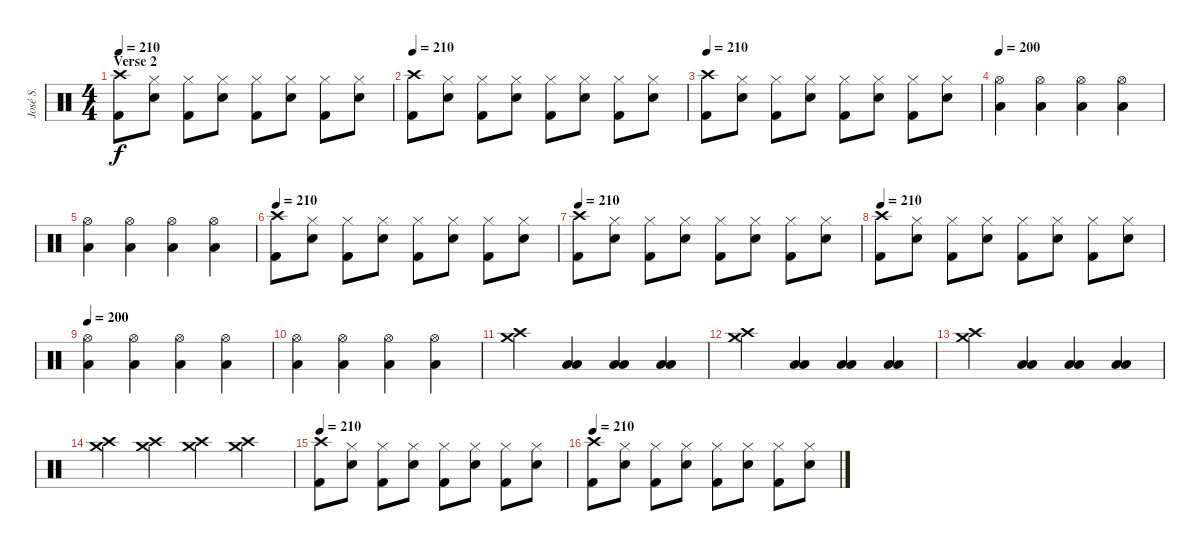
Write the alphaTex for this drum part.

\track ("José S." "José S.") {instrument percussion}
\staff {score}
\articulation defaults
\ts (4 4)
\section ("" "Verse 2")
\tempo 210
\clef neutral
\ks c
("Crash high (hit)" "Kick (hit) 2").8{dy f} ("Hi-Hat (closed)" "Electric Snare (hit)").8 ("Hi-Hat (closed)" "Kick (hit) 2").8 ("Hi-Hat (closed)" "Electric Snare (hit)").8 ("Hi-Hat (closed)" "Kick (hit) 2").8 ("Hi-Hat (closed)" "Electric Snare (hit)").8 ("Hi-Hat (closed)" "Kick (hit) 2").8 ("Hi-Hat (closed)" "Electric Snare (hit)").8 |
\tempo 210
("Crash high (hit)" "Kick (hit) 2").8 ("Hi-Hat (closed)" "Electric Snare (hit)").8 ("Hi-Hat (closed)" "Kick (hit) 2").8 ("Hi-Hat (closed)" "Electric Snare (hit)").8 ("Hi-Hat (closed)" "Kick (hit) 2").8 ("Hi-Hat (closed)" "Electric Snare (hit)").8 ("Hi-Hat (closed)" "Kick (hit) 2").8 ("Hi-Hat (closed)" "Electric Snare (hit)").8 |
\tempo 210
("Crash high (hit)" "Kick (hit) 2").8 ("Hi-Hat (closed)" "Electric Snare (hit)").8 ("Hi-Hat (closed)" "Kick (hit) 2").8 ("Hi-Hat (closed)" "Electric Snare (hit)").8 ("Hi-Hat (closed)" "Kick (hit) 2").8 ("Hi-Hat (closed)" "Electric Snare (hit)").8 ("Hi-Hat (closed)" "Kick (hit) 2").8 ("Hi-Hat (closed)" "Electric Snare (hit)").8 |
\tempo 200
("Hi-Hat (open)" "Low Floor Tom (hit)").4 ("Hi-Hat (open)" "Low Floor Tom (hit)").4 ("Hi-Hat (open)" "Low Floor Tom (hit)").4 ("Hi-Hat (open)" "Low Floor Tom (hit)").4 |
("Hi-Hat (open)" "Low Floor Tom (hit)").4 ("Hi-Hat (open)" "Low Floor Tom (hit)").4 ("Hi-Hat (open)" "Low Floor Tom (hit)").4 ("Hi-Hat (open)" "Low Floor Tom (hit)").4 |
\tempo 210
("Crash high (hit)" "Kick (hit) 2").8 ("Hi-Hat (closed)" "Electric Snare (hit)").8 ("Hi-Hat (closed)" "Kick (hit) 2").8 ("Hi-Hat (closed)" "Electric Snare (hit)").8 ("Hi-Hat (closed)" "Kick (hit) 2").8 ("Hi-Hat (closed)" "Electric Snare (hit)").8 ("Hi-Hat (closed)" "Kick (hit) 2").8 ("Hi-Hat (closed)" "Electric Snare (hit)").8 |
\tempo 210
("Crash high (hit)" "Kick (hit) 2").8 ("Hi-Hat (closed)" "Electric Snare (hit)").8 ("Hi-Hat (closed)" "Kick (hit) 2").8 ("Hi-Hat (closed)" "Electric Snare (hit)").8 ("Hi-Hat (closed)" "Kick (hit) 2").8 ("Hi-Hat (closed)" "Electric Snare (hit)").8 ("Hi-Hat (closed)" "Kick (hit) 2").8 ("Hi-Hat (closed)" "Electric Snare (hit)").8 |
\tempo 210
("Crash high (hit)" "Kick (hit) 2").8 ("Hi-Hat (closed)" "Electric Snare (hit)").8 ("Hi-Hat (closed)" "Kick (hit) 2").8 ("Hi-Hat (closed)" "Electric Snare (hit)").8 ("Hi-Hat (closed)" "Kick (hit) 2").8 ("Hi-Hat (closed)" "Electric Snare (hit)").8 ("Hi-Hat (closed)" "Kick (hit) 2").8 ("Hi-Hat (closed)" "Electric Snare (hit)").8 |
\tempo 200
("Hi-Hat (open)" "Low Floor Tom (hit)").4 ("Hi-Hat (open)" "Low Floor Tom (hit)").4 ("Hi-Hat (open)" "Low Floor Tom (hit)").4 ("Hi-Hat (open)" "Low Floor Tom (hit)").4 |
("Hi-Hat (open)" "Low Floor Tom (hit)").4 ("Hi-Hat (open)" "Low Floor Tom (hit)").4 ("Hi-Hat (open)" "Low Floor Tom (hit)").4 ("Hi-Hat (open)" "Low Floor Tom (hit)").4 |
("Crash high (hit)" "Crash medium (hit)").4 ("Low Tom (hit)" "Low Floor Tom (hit)").4 ("Low Tom (hit)" "Low Floor Tom (hit)").4 ("Low Tom (hit)" "Low Floor Tom (hit)").4 |
("Crash high (hit)" "Crash medium (hit)").4 ("Low Tom (hit)" "Low Floor Tom (hit)").4 ("Low Tom (hit)" "Low Floor Tom (hit)").4 ("Low Tom (hit)" "Low Floor Tom (hit)").4 |
("Crash high (hit)" "Crash medium (hit)").4 ("Low Tom (hit)" "Low Floor Tom (hit)").4 ("Low Tom (hit)" "Low Floor Tom (hit)").4 ("Low Tom (hit)" "Low Floor Tom (hit)").4 |
("Crash medium (hit)" "Crash high (hit)").4 ("Crash medium (hit)" "Crash high (hit)").4 ("Crash medium (hit)" "Crash high (hit)").4 ("Crash medium (hit)" "Crash high (hit)").4 |
\tempo 210
("Crash high (hit)" "Kick (hit) 2").8 ("Hi-Hat (closed)" "Electric Snare (hit)").8 ("Hi-Hat (closed)" "Kick (hit) 2").8 ("Hi-Hat (closed)" "Electric Snare (hit)").8 ("Hi-Hat (closed)" "Kick (hit) 2").8 ("Hi-Hat (closed)" "Electric Snare (hit)").8 ("Hi-Hat (closed)" "Kick (hit) 2").8 ("Hi-Hat (closed)" "Electric Snare (hit)").8 |
\tempo 210
("Crash high (hit)" "Kick (hit) 2").8 ("Hi-Hat (closed)" "Electric Snare (hit)").8 ("Hi-Hat (closed)" "Kick (hit) 2").8 ("Hi-Hat (closed)" "Electric Snare (hit)").8 ("Hi-Hat (closed)" "Kick (hit) 2").8 ("Hi-Hat (closed)" "Electric Snare (hit)").8 ("Hi-Hat (closed)" "Kick (hit) 2").8 ("Hi-Hat (closed)" "Electric Snare (hit)").8
